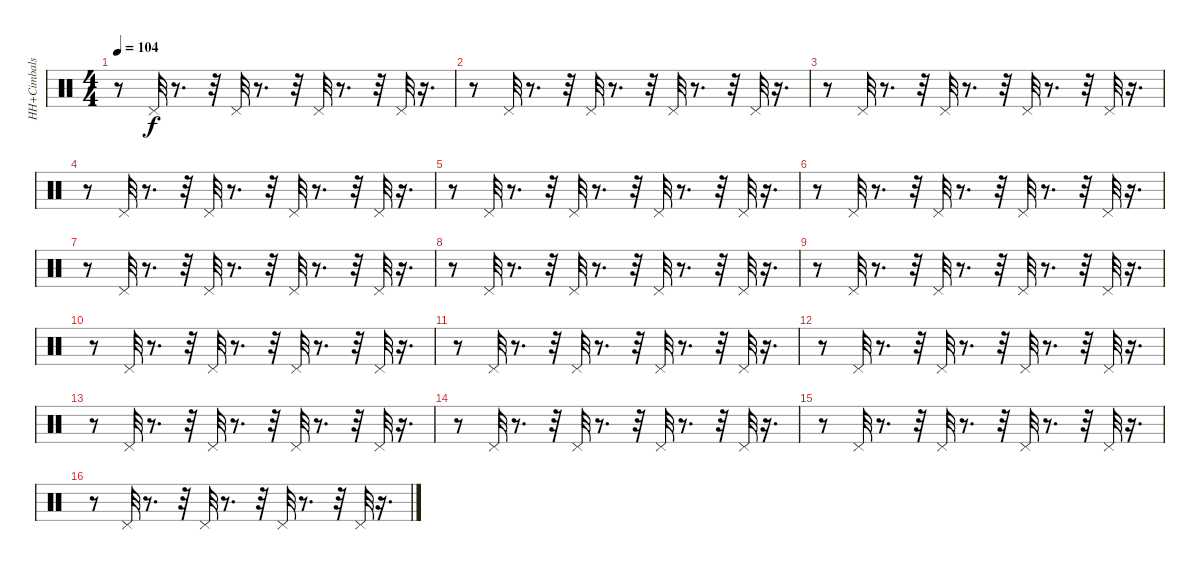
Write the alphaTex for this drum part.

\track ("HH+Cimbals" "HH+Cimbals") {instrument percussion}
\staff {score}
\articulation defaults
\ts (4 4)
\tempo 104
\clef neutral
\ks c
r.8{dy f} "Pedal Hi-Hat (hit)".32 r.8{d} r.32 "Pedal Hi-Hat (hit)".32 r.8{d} r.32 "Pedal Hi-Hat (hit)".32 r.8{d} r.32 "Pedal Hi-Hat (hit)".32 r.16{d} |
r.8 "Pedal Hi-Hat (hit)".32 r.8{d} r.32 "Pedal Hi-Hat (hit)".32 r.8{d} r.32 "Pedal Hi-Hat (hit)".32 r.8{d} r.32 "Pedal Hi-Hat (hit)".32 r.16{d} |
r.8 "Pedal Hi-Hat (hit)".32 r.8{d} r.32 "Pedal Hi-Hat (hit)".32 r.8{d} r.32 "Pedal Hi-Hat (hit)".32 r.8{d} r.32 "Pedal Hi-Hat (hit)".32 r.16{d} |
r.8 "Pedal Hi-Hat (hit)".32 r.8{d} r.32 "Pedal Hi-Hat (hit)".32 r.8{d} r.32 "Pedal Hi-Hat (hit)".32 r.8{d} r.32 "Pedal Hi-Hat (hit)".32 r.16{d} |
r.8 "Pedal Hi-Hat (hit)".32 r.8{d} r.32 "Pedal Hi-Hat (hit)".32 r.8{d} r.32 "Pedal Hi-Hat (hit)".32 r.8{d} r.32 "Pedal Hi-Hat (hit)".32 r.16{d} |
r.8 "Pedal Hi-Hat (hit)".32 r.8{d} r.32 "Pedal Hi-Hat (hit)".32 r.8{d} r.32 "Pedal Hi-Hat (hit)".32 r.8{d} r.32 "Pedal Hi-Hat (hit)".32 r.16{d} |
r.8 "Pedal Hi-Hat (hit)".32 r.8{d} r.32 "Pedal Hi-Hat (hit)".32 r.8{d} r.32 "Pedal Hi-Hat (hit)".32 r.8{d} r.32 "Pedal Hi-Hat (hit)".32 r.16{d} |
r.8 "Pedal Hi-Hat (hit)".32 r.8{d} r.32 "Pedal Hi-Hat (hit)".32 r.8{d} r.32 "Pedal Hi-Hat (hit)".32 r.8{d} r.32 "Pedal Hi-Hat (hit)".32 r.16{d} |
r.8 "Pedal Hi-Hat (hit)".32 r.8{d} r.32 "Pedal Hi-Hat (hit)".32 r.8{d} r.32 "Pedal Hi-Hat (hit)".32 r.8{d} r.32 "Pedal Hi-Hat (hit)".32 r.16{d} |
r.8 "Pedal Hi-Hat (hit)".32 r.8{d} r.32 "Pedal Hi-Hat (hit)".32 r.8{d} r.32 "Pedal Hi-Hat (hit)".32 r.8{d} r.32 "Pedal Hi-Hat (hit)".32 r.16{d} |
r.8 "Pedal Hi-Hat (hit)".32 r.8{d} r.32 "Pedal Hi-Hat (hit)".32 r.8{d} r.32 "Pedal Hi-Hat (hit)".32 r.8{d} r.32 "Pedal Hi-Hat (hit)".32 r.16{d} |
r.8 "Pedal Hi-Hat (hit)".32 r.8{d} r.32 "Pedal Hi-Hat (hit)".32 r.8{d} r.32 "Pedal Hi-Hat (hit)".32 r.8{d} r.32 "Pedal Hi-Hat (hit)".32 r.16{d} |
r.8 "Pedal Hi-Hat (hit)".32 r.8{d} r.32 "Pedal Hi-Hat (hit)".32 r.8{d} r.32 "Pedal Hi-Hat (hit)".32 r.8{d} r.32 "Pedal Hi-Hat (hit)".32 r.16{d} |
r.8 "Pedal Hi-Hat (hit)".32 r.8{d} r.32 "Pedal Hi-Hat (hit)".32 r.8{d} r.32 "Pedal Hi-Hat (hit)".32 r.8{d} r.32 "Pedal Hi-Hat (hit)".32 r.16{d} |
r.8 "Pedal Hi-Hat (hit)".32 r.8{d} r.32 "Pedal Hi-Hat (hit)".32 r.8{d} r.32 "Pedal Hi-Hat (hit)".32 r.8{d} r.32 "Pedal Hi-Hat (hit)".32 r.16{d} |
r.8 "Pedal Hi-Hat (hit)".32 r.8{d} r.32 "Pedal Hi-Hat (hit)".32 r.8{d} r.32 "Pedal Hi-Hat (hit)".32 r.8{d} r.32 "Pedal Hi-Hat (hit)".32 r.16{d}
